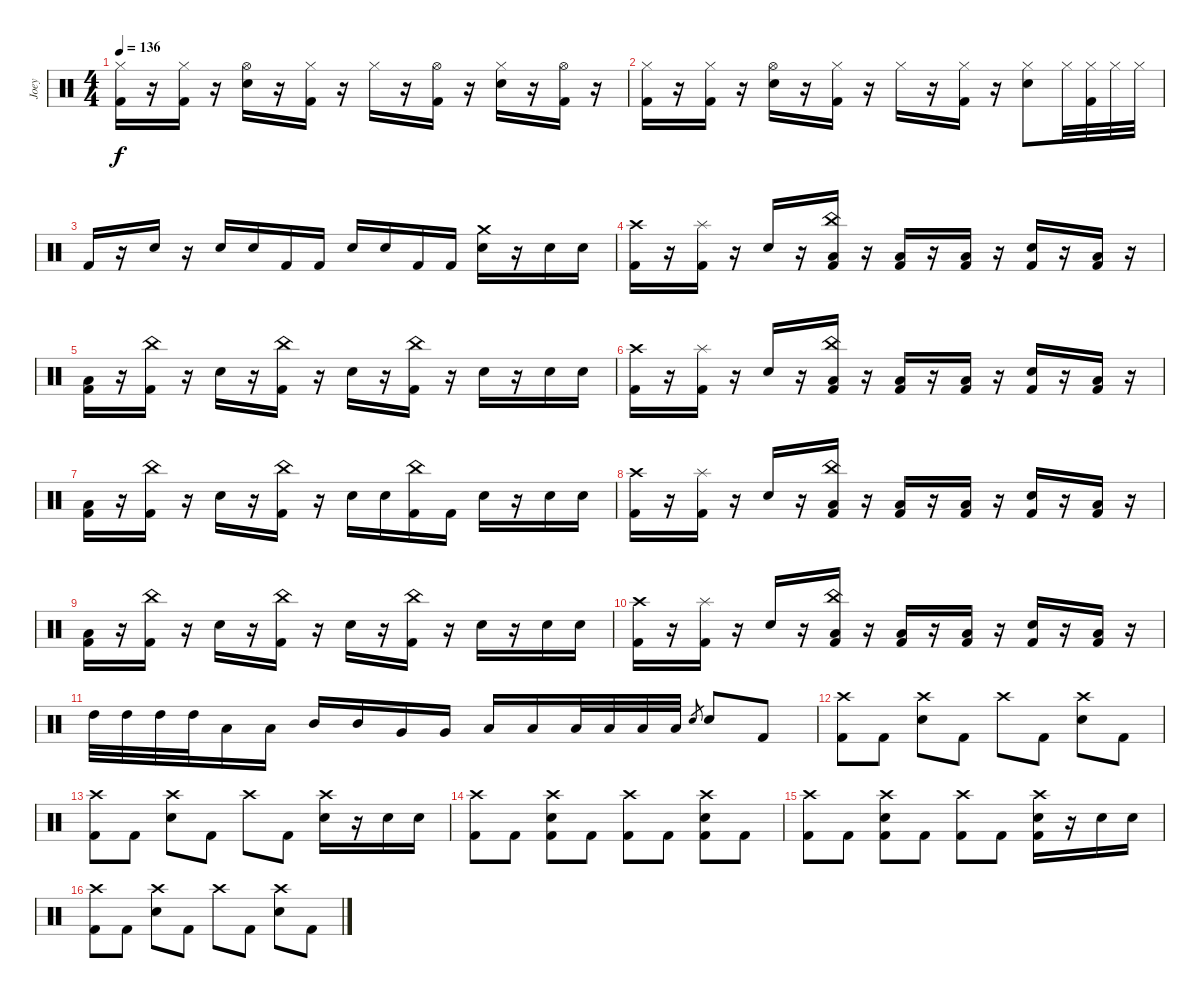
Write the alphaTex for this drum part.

\track ("Joey" "Joey") {instrument percussion}
\staff {score}
\articulation defaults
\ts (4 4)
\tempo 136
\clef neutral
\ks c
("Hi-Hat (closed)" "Kick (hit) 2").16{dy f} r.16 ("Hi-Hat (closed)" "Kick (hit) 2").16 r.16 ("Hi-Hat (open)" "Snare (hit) 2").16 r.16 ("Hi-Hat (closed)" "Kick (hit) 2").16 r.16 "Hi-Hat (closed)".16 r.16 ("Hi-Hat (open)" "Kick (hit) 2").16 r.16 ("Hi-Hat (closed)" "Snare (hit) 2").16 r.16 ("Hi-Hat (open)" "Kick (hit) 2").16 r.16 |
("Hi-Hat (closed)" "Kick (hit) 2").16 r.16 ("Hi-Hat (closed)" "Kick (hit) 2").16 r.16 ("Hi-Hat (open)" "Snare (hit) 2").16 r.16 ("Hi-Hat (closed)" "Kick (hit) 2").16 r.16 "Hi-Hat (closed)".16 r.16 ("Hi-Hat (closed)" "Kick (hit) 2").16 r.16 ("Hi-Hat (closed)" "Snare (hit) 2").8 "Hi-Hat (closed)".32 ("Hi-Hat (closed)" "Kick (hit) 2").32 "Hi-Hat (closed)".32 "Hi-Hat (closed)".32 |
"Kick (hit) 2".16 r.16 "Snare (hit) 2".16 r.16 "Snare (hit) 2".16 "Snare (hit) 2".16 "Kick (hit) 2".16 "Kick (hit) 2".16 "Snare (hit) 2".16 "Snare (hit) 2".16 "Kick (hit) 2".16 "Kick (hit) 2".16 ("Crash medium (hit)" "Snare (hit) 2").16 r.16 "Snare (hit) 2".16 "Snare (hit) 2".16 |
("Crash high (hit)" "Kick (hit) 2").16 r.16 ("Splash (hit)" "Kick (hit) 2").16 r.16 "Snare (hit) 2".16 r.16 ("China (hit)" "Low Floor Tom (hit)" "Kick (hit) 2").16 r.16 ("Low Floor Tom (hit)" "Kick (hit) 2").16 r.16 ("Low Floor Tom (hit)" "Kick (hit) 2").16 r.16 ("Snare (hit) 2" "Kick (hit) 2").16 r.16 ("Low Floor Tom (hit)" "Kick (hit) 2").16 r.16 |
("Low Floor Tom (hit)" "Kick (hit) 2").16 r.16 ("China (hit)" "Kick (hit) 2").16 r.16 "Snare (hit) 2".16 r.16 ("China (hit)" "Kick (hit) 2").16 r.16 "Snare (hit) 2".16 r.16 ("China (hit)" "Kick (hit) 2").16 r.16 "Snare (hit) 2".16 r.16 "Snare (hit) 2".16 "Snare (hit) 2".16 |
("Crash high (hit)" "Kick (hit) 2").16 r.16 ("Splash (hit)" "Kick (hit) 2").16 r.16 "Snare (hit) 2".16 r.16 ("China (hit)" "Low Floor Tom (hit)" "Kick (hit) 2").16 r.16 ("Low Floor Tom (hit)" "Kick (hit) 2").16 r.16 ("Low Floor Tom (hit)" "Kick (hit) 2").16 r.16 ("Snare (hit) 2" "Kick (hit) 2").16 r.16 ("Low Floor Tom (hit)" "Kick (hit) 2").16 r.16 |
("Low Floor Tom (hit)" "Kick (hit) 2").16 r.16 ("China (hit)" "Kick (hit) 2").16 r.16 "Snare (hit) 2".16 r.16 ("China (hit)" "Kick (hit) 2").16 r.16 "Snare (hit) 2".16 "Snare (hit) 2".16 ("China (hit)" "Kick (hit) 2").16 "Kick (hit) 2".16 "Snare (hit) 2".16 r.16 "Snare (hit) 2".16 "Snare (hit) 2".16 |
("Crash high (hit)" "Kick (hit) 2").16 r.16 ("Splash (hit)" "Kick (hit) 2").16 r.16 "Snare (hit) 2".16 r.16 ("China (hit)" "Low Floor Tom (hit)" "Kick (hit) 2").16 r.16 ("Low Floor Tom (hit)" "Kick (hit) 2").16 r.16 ("Low Floor Tom (hit)" "Kick (hit) 2").16 r.16 ("Snare (hit) 2" "Kick (hit) 2").16 r.16 ("Low Floor Tom (hit)" "Kick (hit) 2").16 r.16 |
("Low Floor Tom (hit)" "Kick (hit) 2").16 r.16 ("China (hit)" "Kick (hit) 2").16 r.16 "Snare (hit) 2".16 r.16 ("China (hit)" "Kick (hit) 2").16 r.16 "Snare (hit) 2".16 r.16 ("China (hit)" "Kick (hit) 2").16 r.16 "Snare (hit) 2".16 r.16 "Snare (hit) 2".16 "Snare (hit) 2".16 |
("Crash high (hit)" "Kick (hit) 2").16 r.16 ("Splash (hit)" "Kick (hit) 2").16 r.16 "Snare (hit) 2".16 r.16 ("China (hit)" "Low Floor Tom (hit)" "Kick (hit) 2").16 r.16 ("Low Floor Tom (hit)" "Kick (hit) 2").16 r.16 ("Low Floor Tom (hit)" "Kick (hit) 2").16 r.16 ("Snare (hit) 2" "Kick (hit) 2").16 r.16 ("Low Floor Tom (hit)" "Kick (hit) 2").16 r.16 |
"High Tom (hit)".32 "High Tom (hit)".32 "High Tom (hit)".32 "High Tom (hit)".32 "Low Tom (hit)".16 "Low Tom (hit)".16 "Mid Tom (hit)".16 "Mid Tom (hit)".16 "Very Low Tom (hit)".16 "Very Low Tom (hit)".16 "Low Tom (hit)".16 "Low Tom (hit)".16 "Low Floor Tom (hit)".32 "Low Floor Tom (hit)".32 "Low Floor Tom (hit)".32 "Low Floor Tom (hit)".32 "Snare (hit) 2".8{gr} "Snare (hit) 2".8 "Kick (hit) 2".8 |
("Crash high (hit)" "Kick (hit) 2").8 "Kick (hit) 2".8 ("Crash high (hit)" "Snare (hit) 2").8 "Kick (hit) 2".8 "Crash high (hit)".8 "Kick (hit) 2".8 ("Crash high (hit)" "Snare (hit) 2").8 "Kick (hit) 2".8 |
("Crash high (hit)" "Kick (hit) 2").8 "Kick (hit) 2".8 ("Crash high (hit)" "Snare (hit) 2").8 "Kick (hit) 2".8 "Crash high (hit)".8 "Kick (hit) 2".8 ("Crash high (hit)" "Snare (hit) 2").16 r.16 "Snare (hit) 2".16 "Snare (hit) 2".16 |
("Crash high (hit)" "Kick (hit) 2").8 "Kick (hit) 2".8 ("Crash high (hit)" "Snare (hit) 2" "Kick (hit) 2").8 "Kick (hit) 2".8 ("Crash high (hit)" "Kick (hit) 2").8 "Kick (hit) 2".8 ("Crash high (hit)" "Snare (hit) 2" "Kick (hit) 2").8 "Kick (hit) 2".8 |
("Crash high (hit)" "Kick (hit) 2").8 "Kick (hit) 2".8 ("Crash high (hit)" "Snare (hit) 2" "Kick (hit) 2").8 "Kick (hit) 2".8 ("Crash high (hit)" "Kick (hit) 2").8 "Kick (hit) 2".8 ("Crash high (hit)" "Snare (hit) 2" "Kick (hit) 2").16 r.16 "Snare (hit) 2".16 "Snare (hit) 2".16 |
("Crash high (hit)" "Kick (hit) 2").8 "Kick (hit) 2".8 ("Crash high (hit)" "Snare (hit) 2").8 "Kick (hit) 2".8 "Crash high (hit)".8 "Kick (hit) 2".8 ("Crash high (hit)" "Snare (hit) 2").8 "Kick (hit) 2".8
